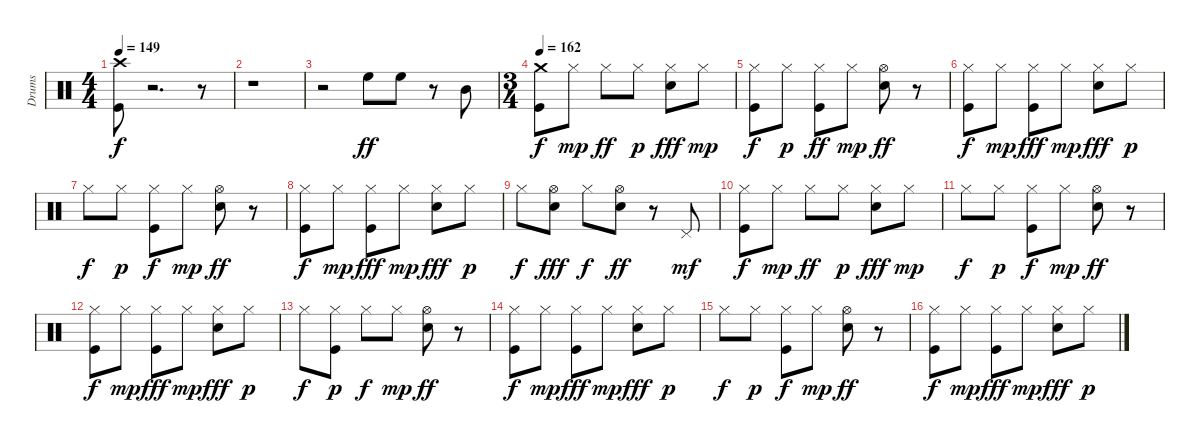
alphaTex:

\track ("Drums" "Drums") {instrument percussion}
\staff {score}
\articulation defaults
\ts (4 4)
\tempo 149
\clef neutral
\ks c
("Kick (hit)" "Crash high (hit)").8{dy f} r.2{d} r.8 |
r.1 |
r.2 "High Floor Tom (hit)".8{dy ff} "High Floor Tom (hit)".8 r.8 "Mid Tom (hit)".8 |
\ts (3 4)
\tempo 162
("Kick (hit)" "Crash medium (hit)").8{dy f} "Hi-Hat (closed)".8{dy mp} "Hi-Hat (closed)".8{dy ff} "Hi-Hat (closed)".8{dy p} ("Electric Snare (hit)" "Hi-Hat (closed)").8{dy fff} "Hi-Hat (closed)".8{dy mp} |
("Kick (hit)" "Hi-Hat (closed)").8{dy f} "Hi-Hat (closed)".8{dy p} ("Kick (hit)" "Hi-Hat (closed)").8{dy ff} "Hi-Hat (closed)".8{dy mp} ("Electric Snare (hit)" "Hi-Hat (open)").8{dy ff} r.8 |
("Kick (hit)" "Hi-Hat (closed)").8{dy f} "Hi-Hat (closed)".8{dy mp} ("Kick (hit)" "Hi-Hat (closed)").8{dy fff} "Hi-Hat (closed)".8{dy mp} ("Electric Snare (hit)" "Hi-Hat (closed)").8{dy fff} "Hi-Hat (closed)".8{dy p} |
"Hi-Hat (closed)".8{dy f} "Hi-Hat (closed)".8{dy p} ("Kick (hit)" "Hi-Hat (closed)").8{dy f} "Hi-Hat (closed)".8{dy mp} ("Electric Snare (hit)" "Hi-Hat (open)").8{dy ff} r.8 |
("Kick (hit)" "Hi-Hat (closed)").8{dy f} "Hi-Hat (closed)".8{dy mp} ("Kick (hit)" "Hi-Hat (closed)").8{dy fff} "Hi-Hat (closed)".8{dy mp} ("Electric Snare (hit)" "Hi-Hat (closed)").8{dy fff} "Hi-Hat (closed)".8{dy p} |
"Hi-Hat (closed)".8{dy f} ("Electric Snare (hit)" "Hi-Hat (open)").8{dy fff} "Hi-Hat (closed)".8{dy f} ("Electric Snare (hit)" "Hi-Hat (open)").8{dy ff} r.8 "Pedal Hi-Hat (hit)".8{dy mf} |
("Kick (hit)" "Hi-Hat (closed)").8{dy f} "Hi-Hat (closed)".8{dy mp} "Hi-Hat (closed)".8{dy ff} "Hi-Hat (closed)".8{dy p} ("Electric Snare (hit)" "Hi-Hat (closed)").8{dy fff} "Hi-Hat (closed)".8{dy mp} |
"Hi-Hat (closed)".8{dy f} "Hi-Hat (closed)".8{dy p} ("Kick (hit)" "Hi-Hat (closed)").8{dy f} "Hi-Hat (closed)".8{dy mp} ("Electric Snare (hit)" "Hi-Hat (open)").8{dy ff} r.8 |
("Kick (hit)" "Hi-Hat (closed)").8{dy f} "Hi-Hat (closed)".8{dy mp} ("Kick (hit)" "Hi-Hat (closed)").8{dy fff} "Hi-Hat (closed)".8{dy mp} ("Electric Snare (hit)" "Hi-Hat (closed)").8{dy fff} "Hi-Hat (closed)".8{dy p} |
"Hi-Hat (closed)".8{dy f} ("Kick (hit)" "Hi-Hat (closed)").8{dy p} "Hi-Hat (closed)".8{dy f} "Hi-Hat (closed)".8{dy mp} ("Electric Snare (hit)" "Hi-Hat (open)").8{dy ff} r.8 |
("Kick (hit)" "Hi-Hat (closed)").8{dy f} "Hi-Hat (closed)".8{dy mp} ("Kick (hit)" "Hi-Hat (closed)").8{dy fff} "Hi-Hat (closed)".8{dy mp} ("Electric Snare (hit)" "Hi-Hat (closed)").8{dy fff} "Hi-Hat (closed)".8{dy p} |
"Hi-Hat (closed)".8{dy f} "Hi-Hat (closed)".8{dy p} ("Kick (hit)" "Hi-Hat (closed)").8{dy f} "Hi-Hat (closed)".8{dy mp} ("Electric Snare (hit)" "Hi-Hat (open)").8{dy ff} r.8 |
("Kick (hit)" "Hi-Hat (closed)").8{dy f} "Hi-Hat (closed)".8{dy mp} ("Kick (hit)" "Hi-Hat (closed)").8{dy fff} "Hi-Hat (closed)".8{dy mp} ("Electric Snare (hit)" "Hi-Hat (closed)").8{dy fff} "Hi-Hat (closed)".8{dy p}
